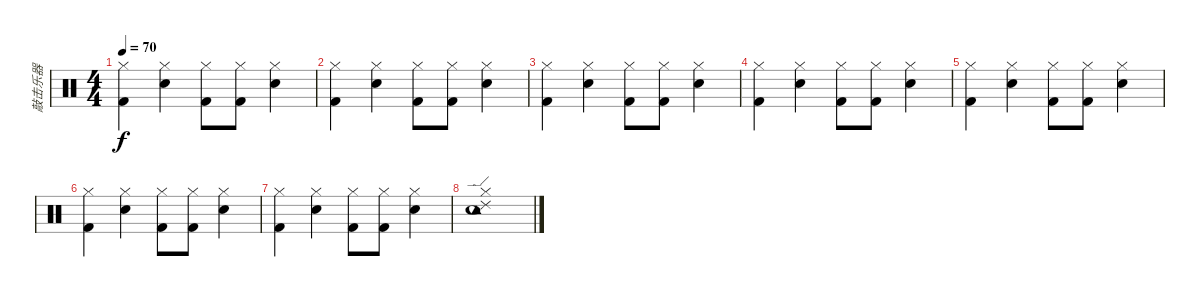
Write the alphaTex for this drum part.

\track ("敲击乐器" "敲击乐器") {instrument percussion}
\staff {score}
\articulation defaults
\ts (4 4)
\tempo 70
\clef neutral
\ks c
("Hi-Hat (closed)" "Kick (hit) 2").4{dy f} ("Hi-Hat (closed)" "Snare (hit) 2").4 ("Hi-Hat (closed)" "Kick (hit) 2").8 ("Hi-Hat (closed)" "Kick (hit) 2").8 ("Hi-Hat (closed)" "Snare (hit) 2").4 |
("Hi-Hat (closed)" "Kick (hit) 2").4 ("Hi-Hat (closed)" "Snare (hit) 2").4 ("Hi-Hat (closed)" "Kick (hit) 2").8 ("Hi-Hat (closed)" "Kick (hit) 2").8 ("Hi-Hat (closed)" "Snare (hit) 2").4 |
("Hi-Hat (closed)" "Kick (hit) 2").4 ("Hi-Hat (closed)" "Snare (hit) 2").4 ("Hi-Hat (closed)" "Kick (hit) 2").8 ("Hi-Hat (closed)" "Kick (hit) 2").8 ("Hi-Hat (closed)" "Snare (hit) 2").4 |
("Hi-Hat (closed)" "Kick (hit) 2").4 ("Hi-Hat (closed)" "Snare (hit) 2").4 ("Hi-Hat (closed)" "Kick (hit) 2").8 ("Hi-Hat (closed)" "Kick (hit) 2").8 ("Hi-Hat (closed)" "Snare (hit) 2").4 |
("Hi-Hat (closed)" "Kick (hit) 2").4 ("Hi-Hat (closed)" "Snare (hit) 2").4 ("Hi-Hat (closed)" "Kick (hit) 2").8 ("Hi-Hat (closed)" "Kick (hit) 2").8 ("Hi-Hat (closed)" "Snare (hit) 2").4 |
("Hi-Hat (closed)" "Kick (hit) 2").4 ("Hi-Hat (closed)" "Snare (hit) 2").4 ("Hi-Hat (closed)" "Kick (hit) 2").8 ("Hi-Hat (closed)" "Kick (hit) 2").8 ("Hi-Hat (closed)" "Snare (hit) 2").4 |
("Hi-Hat (closed)" "Kick (hit) 2").4 ("Hi-Hat (closed)" "Snare (hit) 2").4 ("Hi-Hat (closed)" "Kick (hit) 2").8 ("Hi-Hat (closed)" "Kick (hit) 2").8 ("Hi-Hat (closed)" "Snare (hit) 2").4 |
("Tambourine (hit)" "Snare (hit) 2" "Hi-Hat (closed)" "Ride (edge) 2").1
